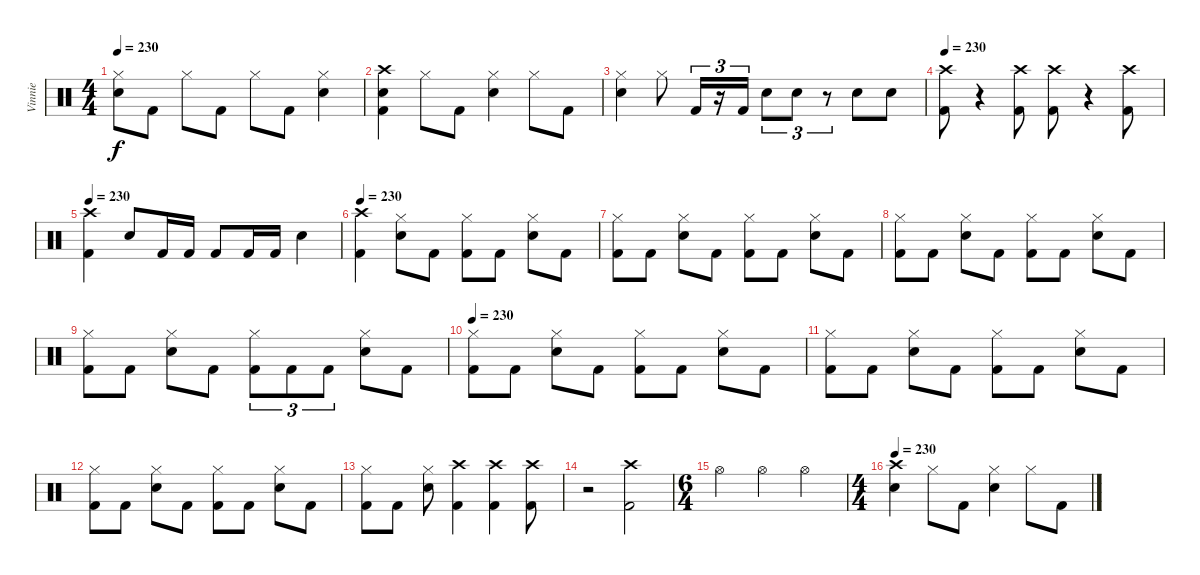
\track ("Vinnie" "Vinnie") {instrument percussion}
\staff {score}
\articulation defaults
\ts (4 4)
\tempo 230
\clef neutral
\ks c
("Hi-Hat (closed)" "Electric Snare (hit)").8{dy f} "Kick (hit) 2".8 "Hi-Hat (closed)".8 "Kick (hit) 2".8 "Hi-Hat (closed)".8 "Kick (hit) 2".8 ("Hi-Hat (closed)" "Electric Snare (hit)").4 |
("Crash high (hit)" "Electric Snare (hit)" "Kick (hit) 2").4 "Hi-Hat (closed)".8 "Kick (hit) 2".8 ("Hi-Hat (closed)" "Electric Snare (hit)").4 "Hi-Hat (closed)".8 "Kick (hit) 2".8 |
("Hi-Hat (closed)" "Electric Snare (hit)").4 "Hi-Hat (closed)".8 "Kick (hit) 2".16{tu (3 2)} r.16{tu (3 2)} "Kick (hit) 2".16{tu (3 2)} "Electric Snare (hit)".8{tu (3 2)} "Electric Snare (hit)".8{tu (3 2)} r.8{tu (3 2)} "Electric Snare (hit)".8 "Electric Snare (hit)".8 |
\tempo 230
("Crash high (hit)" "Kick (hit) 2").8 r.4 ("Crash high (hit)" "Kick (hit) 2").8 ("Crash high (hit)" "Kick (hit) 2").8 r.4 ("Crash high (hit)" "Kick (hit) 2").8 |
\tempo 230
("Crash high (hit)" "Kick (hit) 2").4 "Electric Snare (hit)".8 "Kick (hit) 2".16 "Kick (hit) 2".16 "Kick (hit) 2".8 "Kick (hit) 2".16 "Kick (hit) 2".16 "Electric Snare (hit)".4 |
\tempo 230
("Crash high (hit)" "Kick (hit) 2").4 ("Hi-Hat (closed)" "Electric Snare (hit)").8 "Kick (hit) 2".8 ("Hi-Hat (closed)" "Kick (hit) 2").8 "Kick (hit) 2".8 ("Hi-Hat (closed)" "Electric Snare (hit)").8 "Kick (hit) 2".8 |
("Hi-Hat (closed)" "Kick (hit) 2").8 "Kick (hit) 2".8 ("Hi-Hat (closed)" "Electric Snare (hit)").8 "Kick (hit) 2".8 ("Hi-Hat (closed)" "Kick (hit) 2").8 "Kick (hit) 2".8 ("Hi-Hat (closed)" "Electric Snare (hit)").8 "Kick (hit) 2".8 |
("Hi-Hat (closed)" "Kick (hit) 2").8 "Kick (hit) 2".8 ("Hi-Hat (closed)" "Electric Snare (hit)").8 "Kick (hit) 2".8 ("Hi-Hat (closed)" "Kick (hit) 2").8 "Kick (hit) 2".8 ("Hi-Hat (closed)" "Electric Snare (hit)").8 "Kick (hit) 2".8 |
("Hi-Hat (closed)" "Kick (hit) 2").8 "Kick (hit) 2".8 ("Hi-Hat (closed)" "Electric Snare (hit)").8 "Kick (hit) 2".8 ("Hi-Hat (closed)" "Kick (hit) 2").8{tu (3 2)} "Kick (hit) 2".8{tu (3 2)} "Kick (hit) 2".8{tu (3 2)} ("Hi-Hat (closed)" "Electric Snare (hit)").8 "Kick (hit) 2".8 |
\tempo 230
("Hi-Hat (closed)" "Kick (hit) 2").8 "Kick (hit) 2".8 ("Hi-Hat (closed)" "Electric Snare (hit)").8 "Kick (hit) 2".8 ("Hi-Hat (closed)" "Kick (hit) 2").8 "Kick (hit) 2".8 ("Hi-Hat (closed)" "Electric Snare (hit)").8 "Kick (hit) 2".8 |
("Hi-Hat (closed)" "Kick (hit) 2").8 "Kick (hit) 2".8 ("Hi-Hat (closed)" "Electric Snare (hit)").8 "Kick (hit) 2".8 ("Hi-Hat (closed)" "Kick (hit) 2").8 "Kick (hit) 2".8 ("Hi-Hat (closed)" "Electric Snare (hit)").8 "Kick (hit) 2".8 |
("Hi-Hat (closed)" "Kick (hit) 2").8 "Kick (hit) 2".8 ("Hi-Hat (closed)" "Electric Snare (hit)").8 "Kick (hit) 2".8 ("Hi-Hat (closed)" "Kick (hit) 2").8 "Kick (hit) 2".8 ("Hi-Hat (closed)" "Electric Snare (hit)").8 "Kick (hit) 2".8 |
("Hi-Hat (closed)" "Kick (hit) 2").8 "Kick (hit) 2".8 ("Hi-Hat (closed)" "Electric Snare (hit)").8 ("Crash high (hit)" "Kick (hit) 2").4 ("Crash high (hit)" "Kick (hit) 2").4 ("Crash high (hit)" "Kick (hit) 2").8 |
r.2 ("Crash high (hit)" "Kick (hit) 2").2 |
\ts (6 4)
"Hi-Hat (open)".2 "Hi-Hat (open)".2 "Hi-Hat (open)".2 |
\ts (4 4)
\tempo 230
("Crash high (hit)" "Electric Snare (hit)").4 "Hi-Hat (closed)".8 "Kick (hit) 2".8 ("Hi-Hat (closed)" "Electric Snare (hit)").4 "Hi-Hat (closed)".8 "Kick (hit) 2".8
